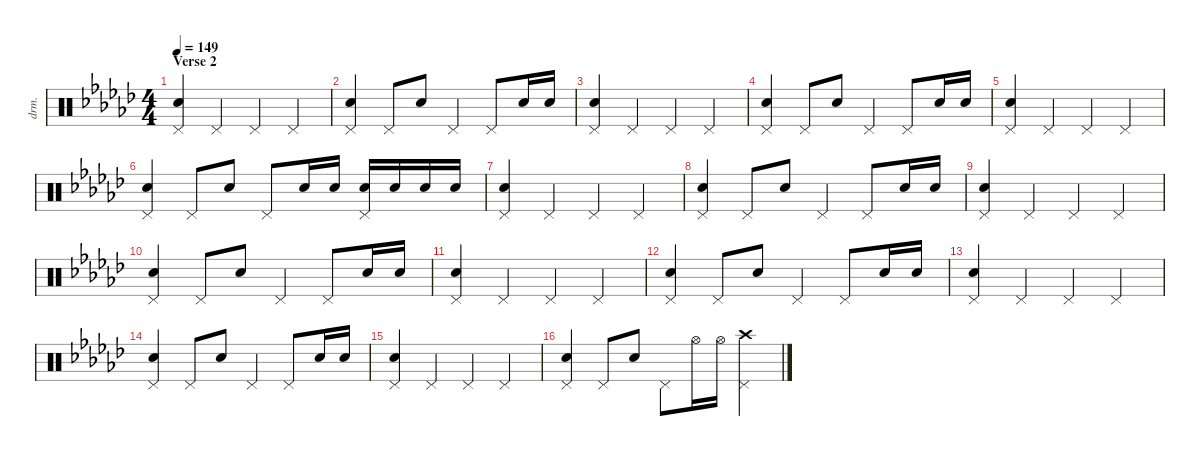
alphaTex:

\defaultSystemsLayout 4
\hideDynamics
\bracketExtendMode nobrackets
\otherSystemsTrackNameOrientation horizontal
\track ("Drums" "drm.") {defaultSystemsLayout 4 instrument percussion}
\staff {score}
\articulation defaults
\ts (4 4)
\section ("" "Verse 2")
\tempo 149
\clef neutral
\ks gb
("Pedal Hi-Hat (hit)"{acc forcenatural} "Snare (hit) 2"{acc forcenatural}).4{dy f beam Up} "Pedal Hi-Hat (hit)"{acc forcenatural}.4{beam Up} "Pedal Hi-Hat (hit)"{acc forcenatural}.4{beam Up} "Pedal Hi-Hat (hit)"{acc forcenatural}.4{beam Up} |
("Pedal Hi-Hat (hit)"{acc forcenatural} "Snare (hit) 2"{acc forcenatural}).4{beam Up} "Pedal Hi-Hat (hit)"{acc forcenatural}.8{beam Up} "Snare (hit) 2"{acc forcenatural}.8{beam Up} "Pedal Hi-Hat (hit)"{acc forcenatural}.4{beam Up} "Pedal Hi-Hat (hit)"{acc forcenatural}.8{beam Up} "Snare (hit) 2"{acc forcenatural}.16{beam Up} "Snare (hit) 2"{acc forcenatural}.16{dy ff beam Up} |
("Pedal Hi-Hat (hit)"{acc forcenatural} "Snare (hit) 2"{acc forcenatural}).4{dy f beam Up} "Pedal Hi-Hat (hit)"{acc forcenatural}.4{beam Up} "Pedal Hi-Hat (hit)"{acc forcenatural}.4{beam Up} "Pedal Hi-Hat (hit)"{acc forcenatural}.4{beam Up} |
("Pedal Hi-Hat (hit)"{acc forcenatural} "Snare (hit) 2"{acc forcenatural}).4{beam Up} "Pedal Hi-Hat (hit)"{acc forcenatural}.8{beam Up} "Snare (hit) 2"{acc forcenatural}.8{beam Up} "Pedal Hi-Hat (hit)"{acc forcenatural}.4{beam Up} "Pedal Hi-Hat (hit)"{acc forcenatural}.8{beam Up} "Snare (hit) 2"{acc forcenatural}.16{beam Up} "Snare (hit) 2"{acc forcenatural}.16{dy ff beam Up} |
("Pedal Hi-Hat (hit)"{acc forcenatural} "Snare (hit) 2"{acc forcenatural}).4{dy f beam Up} "Pedal Hi-Hat (hit)"{acc forcenatural}.4{beam Up} "Pedal Hi-Hat (hit)"{acc forcenatural}.4{beam Up} "Pedal Hi-Hat (hit)"{acc forcenatural}.4{beam Up} |
("Pedal Hi-Hat (hit)"{acc forcenatural} "Snare (hit) 2"{acc forcenatural}).4{beam Up} "Pedal Hi-Hat (hit)"{acc forcenatural}.8{beam Up} "Snare (hit) 2"{acc forcenatural}.8{beam Up} "Pedal Hi-Hat (hit)"{acc forcenatural}.8{beam Up} "Snare (hit) 2"{acc forcenatural}.16{dy p beam Up} "Snare (hit) 2"{acc forcenatural}.16{dy mp beam Up} ("Pedal Hi-Hat (hit)"{acc forcenatural} "Snare (hit) 2"{acc forcenatural}).16{dy f beam Up} "Snare (hit) 2"{acc forcenatural}.16{dy mf beam Up} "Snare (hit) 2"{acc forcenatural}.16{dy f beam Up} "Snare (hit) 2"{acc forcenatural}.16{dy ff beam Up} |
("Pedal Hi-Hat (hit)"{acc forcenatural} "Snare (hit) 2"{acc forcenatural}).4{dy f beam Up} "Pedal Hi-Hat (hit)"{acc forcenatural}.4{beam Up} "Pedal Hi-Hat (hit)"{acc forcenatural}.4{beam Up} "Pedal Hi-Hat (hit)"{acc forcenatural}.4{beam Up} |
("Pedal Hi-Hat (hit)"{acc forcenatural} "Snare (hit) 2"{acc forcenatural}).4{beam Up} "Pedal Hi-Hat (hit)"{acc forcenatural}.8{beam Up} "Snare (hit) 2"{acc forcenatural}.8{beam Up} "Pedal Hi-Hat (hit)"{acc forcenatural}.4{beam Up} "Pedal Hi-Hat (hit)"{acc forcenatural}.8{beam Up} "Snare (hit) 2"{acc forcenatural}.16{beam Up} "Snare (hit) 2"{acc forcenatural}.16{dy ff beam Up} |
("Pedal Hi-Hat (hit)"{acc forcenatural} "Snare (hit) 2"{acc forcenatural}).4{dy f beam Up} "Pedal Hi-Hat (hit)"{acc forcenatural}.4{beam Up} "Pedal Hi-Hat (hit)"{acc forcenatural}.4{beam Up} "Pedal Hi-Hat (hit)"{acc forcenatural}.4{beam Up} |
("Pedal Hi-Hat (hit)"{acc forcenatural} "Snare (hit) 2"{acc forcenatural}).4{beam Up} "Pedal Hi-Hat (hit)"{acc forcenatural}.8{beam Up} "Snare (hit) 2"{acc forcenatural}.8{beam Up} "Pedal Hi-Hat (hit)"{acc forcenatural}.4{beam Up} "Pedal Hi-Hat (hit)"{acc forcenatural}.8{beam Up} "Snare (hit) 2"{acc forcenatural}.16{beam Up} "Snare (hit) 2"{acc forcenatural}.16{dy ff beam Up} |
("Pedal Hi-Hat (hit)"{acc forcenatural} "Snare (hit) 2"{acc forcenatural}).4{dy f beam Up} "Pedal Hi-Hat (hit)"{acc forcenatural}.4{beam Up} "Pedal Hi-Hat (hit)"{acc forcenatural}.4{beam Up} "Pedal Hi-Hat (hit)"{acc forcenatural}.4{beam Up} |
("Pedal Hi-Hat (hit)"{acc forcenatural} "Snare (hit) 2"{acc forcenatural}).4{beam Up} "Pedal Hi-Hat (hit)"{acc forcenatural}.8{beam Up} "Snare (hit) 2"{acc forcenatural}.8{beam Up} "Pedal Hi-Hat (hit)"{acc forcenatural}.4{beam Up} "Pedal Hi-Hat (hit)"{acc forcenatural}.8{beam Up} "Snare (hit) 2"{acc forcenatural}.16{beam Up} "Snare (hit) 2"{acc forcenatural}.16{dy ff beam Up} |
("Pedal Hi-Hat (hit)"{acc forcenatural} "Snare (hit) 2"{acc forcenatural}).4{dy f beam Up} "Pedal Hi-Hat (hit)"{acc forcenatural}.4{beam Up} "Pedal Hi-Hat (hit)"{acc forcenatural}.4{beam Up} "Pedal Hi-Hat (hit)"{acc forcenatural}.4{beam Up} |
("Pedal Hi-Hat (hit)"{acc forcenatural} "Snare (hit) 2"{acc forcenatural}).4{beam Up} "Pedal Hi-Hat (hit)"{acc forcenatural}.8{beam Up} "Snare (hit) 2"{acc forcenatural}.8{beam Up} "Pedal Hi-Hat (hit)"{acc forcenatural}.4{beam Up} "Pedal Hi-Hat (hit)"{acc forcenatural}.8{beam Up} "Snare (hit) 2"{acc forcenatural}.16{beam Up} "Snare (hit) 2"{acc forcenatural}.16{dy ff beam Up} |
("Pedal Hi-Hat (hit)"{acc forcenatural} "Snare (hit) 2"{acc forcenatural}).4{dy f beam Up} "Pedal Hi-Hat (hit)"{acc forcenatural}.4{beam Up} "Pedal Hi-Hat (hit)"{acc forcenatural}.4{beam Up} "Pedal Hi-Hat (hit)"{acc forcenatural}.4{beam Up} |
("Pedal Hi-Hat (hit)"{acc forcenatural} "Snare (hit) 2"{acc forcenatural}).4{beam Up} "Pedal Hi-Hat (hit)"{acc forcenatural}.8{beam Up} "Snare (hit) 2"{acc forcenatural}.8{beam Up} "Pedal Hi-Hat (hit)"{acc forcenatural}.8{beam Down} "Hi-Hat (open)"{acc forcenatural}.16{beam Down} "Hi-Hat (open)"{acc forcenatural}.16{beam Down} ("Pedal Hi-Hat (hit)"{acc forcenatural} "Crash high (hit)"{acc forcenatural}).4{beam Down}
